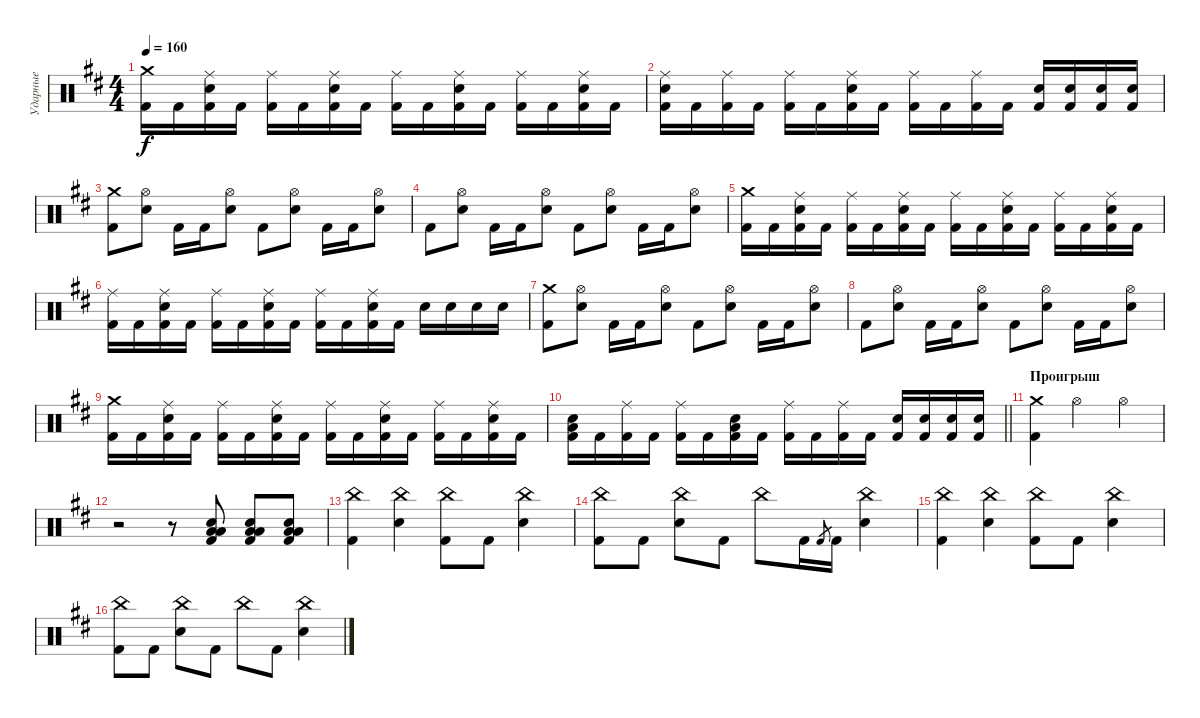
\track ("Ударные" "Ударные") {instrument percussion}
\staff {score}
\articulation defaults
\ts (4 4)
\tempo 160
\clef neutral
\ks bminor
("Kick (hit) 2" "Crash medium (hit)").16{dy f} "Kick (hit) 2".16 ("Snare (hit) 2" "Kick (hit) 2" "Ride (middle)").16 "Kick (hit) 2".16 ("Kick (hit) 2" "Ride (middle)").16 "Kick (hit) 2".16 ("Snare (hit) 2" "Kick (hit) 2" "Ride (middle)").16 "Kick (hit) 2".16 ("Kick (hit) 2" "Ride (middle)").16 "Kick (hit) 2".16 ("Snare (hit) 2" "Kick (hit) 2" "Ride (middle)").16 "Kick (hit) 2".16 ("Kick (hit) 2" "Ride (middle)").16 "Kick (hit) 2".16 ("Snare (hit) 2" "Kick (hit) 2" "Ride (middle)").16 "Kick (hit) 2".16 |
("Snare (hit) 2" "Kick (hit) 2" "Ride (middle)").16 "Kick (hit) 2".16 ("Kick (hit) 2" "Ride (middle)").16 "Kick (hit) 2".16 ("Kick (hit) 2" "Ride (middle)").16 "Kick (hit) 2".16 ("Snare (hit) 2" "Kick (hit) 2" "Ride (middle)").16 "Kick (hit) 2".16 ("Kick (hit) 2" "Ride (middle)").16 "Kick (hit) 2".16 ("Kick (hit) 2" "Ride (middle)").16 "Kick (hit) 2".16 ("Kick (hit) 2" "Snare (hit) 2").16 ("Kick (hit) 2" "Snare (hit) 2").16 ("Kick (hit) 2" "Snare (hit) 2").16 ("Kick (hit) 2" "Snare (hit) 2").16 |
("Crash medium (hit)" "Kick (hit) 2").8 ("Hi-Hat (open)" "Snare (hit) 2").8 "Kick (hit) 2".16 "Kick (hit) 2".16 ("Hi-Hat (open)" "Snare (hit) 2").8 "Kick (hit) 2".8 ("Hi-Hat (open)" "Snare (hit) 2").8 "Kick (hit) 2".16 "Kick (hit) 2".16 ("Hi-Hat (open)" "Snare (hit) 2").8 |
"Kick (hit) 2".8 ("Hi-Hat (open)" "Snare (hit) 2").8 "Kick (hit) 2".16 "Kick (hit) 2".16 ("Hi-Hat (open)" "Snare (hit) 2").8 "Kick (hit) 2".8 ("Hi-Hat (open)" "Snare (hit) 2").8 "Kick (hit) 2".16 "Kick (hit) 2".16 ("Hi-Hat (open)" "Snare (hit) 2").8 |
("Kick (hit) 2" "Crash medium (hit)").16 "Kick (hit) 2".16 ("Snare (hit) 2" "Kick (hit) 2" "Ride (middle)").16 "Kick (hit) 2".16 ("Kick (hit) 2" "Ride (middle)").16 "Kick (hit) 2".16 ("Snare (hit) 2" "Kick (hit) 2" "Ride (middle)").16 "Kick (hit) 2".16 ("Kick (hit) 2" "Ride (middle)").16 "Kick (hit) 2".16 ("Snare (hit) 2" "Kick (hit) 2" "Ride (middle)").16 "Kick (hit) 2".16 ("Kick (hit) 2" "Ride (middle)").16 "Kick (hit) 2".16 ("Snare (hit) 2" "Kick (hit) 2" "Ride (middle)").16 "Kick (hit) 2".16 |
("Kick (hit) 2" "Ride (middle)").16 "Kick (hit) 2".16 ("Snare (hit) 2" "Kick (hit) 2" "Ride (middle)").16 "Kick (hit) 2".16 ("Kick (hit) 2" "Ride (middle)").16 "Kick (hit) 2".16 ("Snare (hit) 2" "Kick (hit) 2" "Ride (middle)").16 "Kick (hit) 2".16 ("Kick (hit) 2" "Ride (middle)").16 "Kick (hit) 2".16 ("Snare (hit) 2" "Kick (hit) 2" "Ride (middle)").16 "Kick (hit) 2".16 "Snare (hit) 2".16 "Snare (hit) 2".16 "Snare (hit) 2".16 "Snare (hit) 2".16 |
("Crash medium (hit)" "Kick (hit) 2").8 ("Hi-Hat (open)" "Snare (hit) 2").8 "Kick (hit) 2".16 "Kick (hit) 2".16 ("Hi-Hat (open)" "Snare (hit) 2").8 "Kick (hit) 2".8 ("Hi-Hat (open)" "Snare (hit) 2").8 "Kick (hit) 2".16 "Kick (hit) 2".16 ("Hi-Hat (open)" "Snare (hit) 2").8 |
"Kick (hit) 2".8 ("Hi-Hat (open)" "Snare (hit) 2").8 "Kick (hit) 2".16 "Kick (hit) 2".16 ("Hi-Hat (open)" "Snare (hit) 2").8 "Kick (hit) 2".8 ("Hi-Hat (open)" "Snare (hit) 2").8 "Kick (hit) 2".16 "Kick (hit) 2".16 ("Hi-Hat (open)" "Snare (hit) 2").8 |
("Kick (hit) 2" "Crash medium (hit)").16 "Kick (hit) 2".16 ("Snare (hit) 2" "Kick (hit) 2" "Ride (middle)").16 "Kick (hit) 2".16 ("Kick (hit) 2" "Ride (middle)").16 "Kick (hit) 2".16 ("Snare (hit) 2" "Kick (hit) 2" "Ride (middle)").16 "Kick (hit) 2".16 ("Kick (hit) 2" "Ride (middle)").16 "Kick (hit) 2".16 ("Snare (hit) 2" "Kick (hit) 2" "Ride (middle)").16 "Kick (hit) 2".16 ("Kick (hit) 2" "Ride (middle)").16 "Kick (hit) 2".16 ("Snare (hit) 2" "Kick (hit) 2" "Ride (middle)").16 "Kick (hit) 2".16 |
\barLineRight lightlight
("Snare (hit) 2" "Kick (hit) 2" "Low Tom (hit)").16 "Kick (hit) 2".16 ("Kick (hit) 2" "Ride (middle)").16 "Kick (hit) 2".16 ("Kick (hit) 2" "Ride (middle)").16 "Kick (hit) 2".16 ("Snare (hit) 2" "Kick (hit) 2" "Low Floor Tom (hit)").16 "Kick (hit) 2".16 ("Kick (hit) 2" "Ride (middle)").16 "Kick (hit) 2".16 ("Kick (hit) 2" "Ride (middle)").16 "Kick (hit) 2".16 ("Kick (hit) 2" "Snare (hit) 2").16 ("Kick (hit) 2" "Snare (hit) 2").16 ("Kick (hit) 2" "Snare (hit) 2").16 ("Kick (hit) 2" "Snare (hit) 2").16 |
\section ("" "Проигрыш")
("Crash medium (hit)" "Kick (hit) 2").4 "Hi-Hat (open)".2 "Hi-Hat (open)".4 |
r.2 r.8 ("Low Floor Tom (hit)" "Kick (hit) 2" "Low Tom (hit)" "Snare (hit) 2").8 ("Low Floor Tom (hit)" "Kick (hit) 2" "Low Tom (hit)" "Snare (hit) 2").8 ("Low Floor Tom (hit)" "Kick (hit) 2" "Low Tom (hit)" "Snare (hit) 2").8 |
("Kick (hit) 2" "China (hit)").4 ("Snare (hit) 2" "China (hit)").4 ("Kick (hit) 2" "China (hit)").8 "Kick (hit) 2".8 ("Snare (hit) 2" "China (hit)").4 |
("Kick (hit) 2" "China (hit)").8 "Kick (hit) 2".8 ("China (hit)" "Snare (hit) 2").8 "Kick (hit) 2".8 "China (hit)".8 "Kick (hit) 2".16 "Kick (hit) 2".8{gr} "Kick (hit) 2".16 ("China (hit)" "Snare (hit) 2").4 |
("Kick (hit) 2" "China (hit)").4 ("Snare (hit) 2" "China (hit)").4 ("Kick (hit) 2" "China (hit)").8 "Kick (hit) 2".8 ("Snare (hit) 2" "China (hit)").4 |
("Kick (hit) 2" "China (hit)").8 "Kick (hit) 2".8 ("China (hit)" "Snare (hit) 2").8 "Kick (hit) 2".8 "China (hit)".8 "Kick (hit) 2".8 ("China (hit)" "Snare (hit) 2").4
